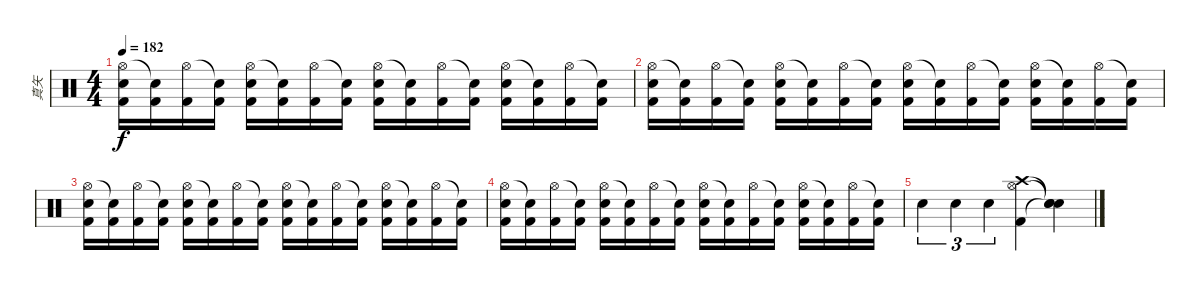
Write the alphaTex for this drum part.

\track ("真矢" "真矢") {instrument percussion}
\staff {score}
\articulation defaults
\ts (4 4)
\tempo 182
\clef neutral
\ks c
("Hi-Hat (open)" "Electric Snare (hit)" "Kick (hit) 2").16{dy f} ("Snare (hit)"{t} "Kick (hit) 2").16 ("Hi-Hat (open)" "Kick (hit) 2").16 ("Snare (hit)"{t} "Kick (hit) 2").16 ("Hi-Hat (open)" "Electric Snare (hit)" "Kick (hit) 2").16 ("Snare (hit)"{t} "Kick (hit) 2").16 ("Hi-Hat (open)" "Kick (hit) 2").16 ("Snare (hit)"{t} "Kick (hit) 2").16 ("Hi-Hat (open)" "Electric Snare (hit)" "Kick (hit) 2").16 ("Snare (hit)"{t} "Kick (hit) 2").16 ("Hi-Hat (open)" "Kick (hit) 2").16 ("Snare (hit)"{t} "Kick (hit) 2").16 ("Hi-Hat (open)" "Electric Snare (hit)" "Kick (hit) 2").16 ("Snare (hit)"{t} "Kick (hit) 2").16 ("Hi-Hat (open)" "Kick (hit) 2").16 ("Snare (hit)"{t} "Kick (hit) 2").16 |
("Hi-Hat (open)" "Electric Snare (hit)" "Kick (hit) 2").16 ("Snare (hit)"{t} "Kick (hit) 2").16 ("Hi-Hat (open)" "Kick (hit) 2").16 ("Snare (hit)"{t} "Kick (hit) 2").16 ("Hi-Hat (open)" "Electric Snare (hit)" "Kick (hit) 2").16 ("Snare (hit)"{t} "Kick (hit) 2").16 ("Hi-Hat (open)" "Kick (hit) 2").16 ("Snare (hit)"{t} "Kick (hit) 2").16 ("Hi-Hat (open)" "Electric Snare (hit)" "Kick (hit) 2").16 ("Snare (hit)"{t} "Kick (hit) 2").16 ("Hi-Hat (open)" "Kick (hit) 2").16 ("Snare (hit)"{t} "Kick (hit) 2").16 ("Hi-Hat (open)" "Electric Snare (hit)" "Kick (hit) 2").16 ("Snare (hit)"{t} "Kick (hit) 2").16 ("Hi-Hat (open)" "Kick (hit) 2").16 ("Snare (hit)"{t} "Kick (hit) 2").16 |
("Hi-Hat (open)" "Electric Snare (hit)" "Kick (hit) 2").16 ("Snare (hit)"{t} "Kick (hit) 2").16 ("Hi-Hat (open)" "Kick (hit) 2").16 ("Snare (hit)"{t} "Kick (hit) 2").16 ("Hi-Hat (open)" "Electric Snare (hit)" "Kick (hit) 2").16 ("Snare (hit)"{t} "Kick (hit) 2").16 ("Hi-Hat (open)" "Kick (hit) 2").16 ("Snare (hit)"{t} "Kick (hit) 2").16 ("Hi-Hat (open)" "Electric Snare (hit)" "Kick (hit) 2").16 ("Snare (hit)"{t} "Kick (hit) 2").16 ("Hi-Hat (open)" "Kick (hit) 2").16 ("Snare (hit)"{t} "Kick (hit) 2").16 ("Hi-Hat (open)" "Electric Snare (hit)" "Kick (hit) 2").16 ("Snare (hit)"{t} "Kick (hit) 2").16 ("Hi-Hat (open)" "Kick (hit) 2").16 ("Snare (hit)"{t} "Kick (hit) 2").16 |
("Hi-Hat (open)" "Electric Snare (hit)" "Kick (hit) 2").16 ("Snare (hit)"{t} "Kick (hit) 2").16 ("Hi-Hat (open)" "Kick (hit) 2").16 ("Snare (hit)"{t} "Kick (hit) 2").16 ("Hi-Hat (open)" "Electric Snare (hit)" "Kick (hit) 2").16 ("Snare (hit)"{t} "Kick (hit) 2").16 ("Hi-Hat (open)" "Kick (hit) 2").16 ("Snare (hit)"{t} "Kick (hit) 2").16 ("Hi-Hat (open)" "Electric Snare (hit)" "Kick (hit) 2").16 ("Snare (hit)"{t} "Kick (hit) 2").16 ("Hi-Hat (open)" "Kick (hit) 2").16 ("Snare (hit)"{t} "Kick (hit) 2").16 ("Hi-Hat (open)" "Electric Snare (hit)" "Kick (hit) 2").16 ("Snare (hit)"{t} "Kick (hit) 2").16 ("Hi-Hat (open)" "Kick (hit) 2").16 ("Snare (hit)"{t} "Kick (hit) 2").16 |
"Snare (hit) 2".4{tu (3 2)} "Snare (hit) 2".4{tu (3 2)} "Snare (hit) 2".4{tu (3 2)} ("Crash high (hit)" "Hi-Hat (open)" "Kick (hit) 2").4 ("Snare (hit)"{t} "Snare (hit)"{t} "Snare (hit)"{t}).4
